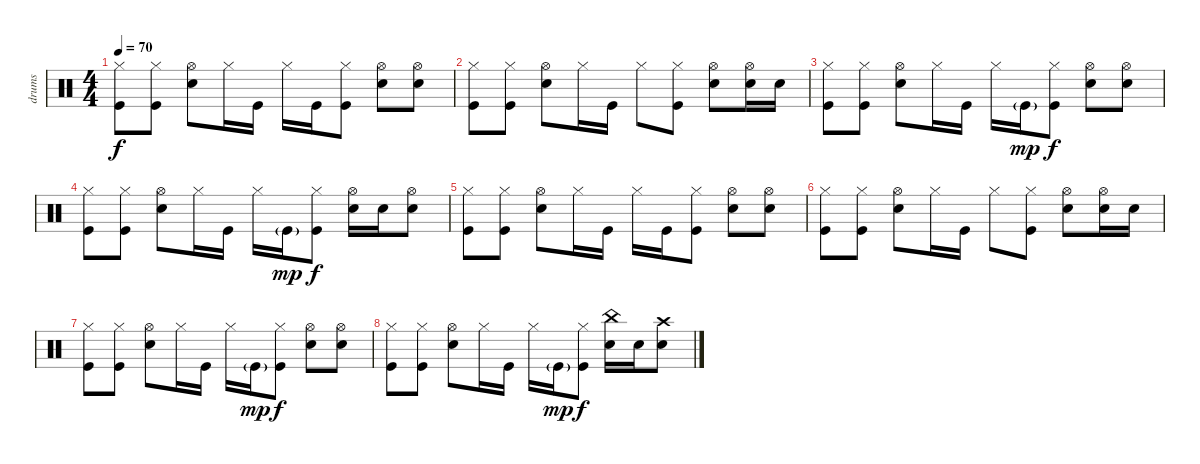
\track ("drums" "drums") {instrument percussion}
\staff {score}
\articulation defaults
\ts (4 4)
\tempo 70
\clef neutral
\ks c
("Hi-Hat (closed)" "Kick (hit)").8{dy f} ("Hi-Hat (closed)" "Kick (hit)").8 ("Hi-Hat (open)" "Snare (hit) 2").8 "Hi-Hat (closed)".16 "Kick (hit)".16 "Hi-Hat (closed)".16 "Kick (hit)".16 ("Hi-Hat (closed)" "Kick (hit)").8 ("Hi-Hat (open)" "Snare (hit) 2").8 ("Hi-Hat (open)" "Snare (hit) 2").8 |
("Hi-Hat (closed)" "Kick (hit)").8 ("Hi-Hat (closed)" "Kick (hit)").8 ("Hi-Hat (open)" "Snare (hit) 2").8 "Hi-Hat (closed)".16 "Kick (hit)".16 "Hi-Hat (closed)".8 ("Hi-Hat (closed)" "Kick (hit)").8 ("Hi-Hat (open)" "Snare (hit) 2").8 ("Hi-Hat (open)" "Snare (hit) 2").16 "Snare (hit) 2".16 |
("Hi-Hat (closed)" "Kick (hit)").8 ("Hi-Hat (closed)" "Kick (hit)").8 ("Hi-Hat (open)" "Snare (hit) 2").8 "Hi-Hat (closed)".16 "Kick (hit)".16 "Hi-Hat (closed)".16 "Kick (hit)"{g}.16{dy mp} ("Hi-Hat (closed)" "Kick (hit)").8{dy f} ("Hi-Hat (open)" "Snare (hit) 2").8 ("Hi-Hat (open)" "Snare (hit) 2").8 |
("Hi-Hat (closed)" "Kick (hit)").8 ("Hi-Hat (closed)" "Kick (hit)").8 ("Hi-Hat (open)" "Snare (hit) 2").8 "Hi-Hat (closed)".16 "Kick (hit)".16 "Hi-Hat (closed)".16 "Kick (hit)"{g}.16{dy mp} ("Hi-Hat (closed)" "Kick (hit)").8{dy f} ("Hi-Hat (open)" "Snare (hit) 2").16 "Snare (hit) 2".16 ("Hi-Hat (open)" "Snare (hit) 2").8 |
("Hi-Hat (closed)" "Kick (hit)").8 ("Hi-Hat (closed)" "Kick (hit)").8 ("Hi-Hat (open)" "Snare (hit) 2").8 "Hi-Hat (closed)".16 "Kick (hit)".16 "Hi-Hat (closed)".16 "Kick (hit)".16 ("Hi-Hat (closed)" "Kick (hit)").8 ("Hi-Hat (open)" "Snare (hit) 2").8 ("Hi-Hat (open)" "Snare (hit) 2").8 |
("Hi-Hat (closed)" "Kick (hit)").8 ("Hi-Hat (closed)" "Kick (hit)").8 ("Hi-Hat (open)" "Snare (hit) 2").8 "Hi-Hat (closed)".16 "Kick (hit)".16 "Hi-Hat (closed)".8 ("Hi-Hat (closed)" "Kick (hit)").8 ("Hi-Hat (open)" "Snare (hit) 2").8 ("Hi-Hat (open)" "Snare (hit) 2").16 "Snare (hit) 2".16 |
("Hi-Hat (closed)" "Kick (hit)").8 ("Hi-Hat (closed)" "Kick (hit)").8 ("Hi-Hat (open)" "Snare (hit) 2").8 "Hi-Hat (closed)".16 "Kick (hit)".16 "Hi-Hat (closed)".16 "Kick (hit)"{g}.16{dy mp} ("Hi-Hat (closed)" "Kick (hit)").8{dy f} ("Hi-Hat (open)" "Snare (hit) 2").8 ("Hi-Hat (open)" "Snare (hit) 2").8 |
("Hi-Hat (closed)" "Kick (hit)").8 ("Hi-Hat (closed)" "Kick (hit)").8 ("Hi-Hat (open)" "Snare (hit) 2").8 "Hi-Hat (closed)".16 "Kick (hit)".16 "Hi-Hat (closed)".16 "Kick (hit)"{g}.16{dy mp} ("Hi-Hat (closed)" "Kick (hit)").8{dy f} ("China (hit)" "Snare (hit) 2").16 "Snare (hit) 2".16 ("Crash high (hit)" "Snare (hit) 2").8
